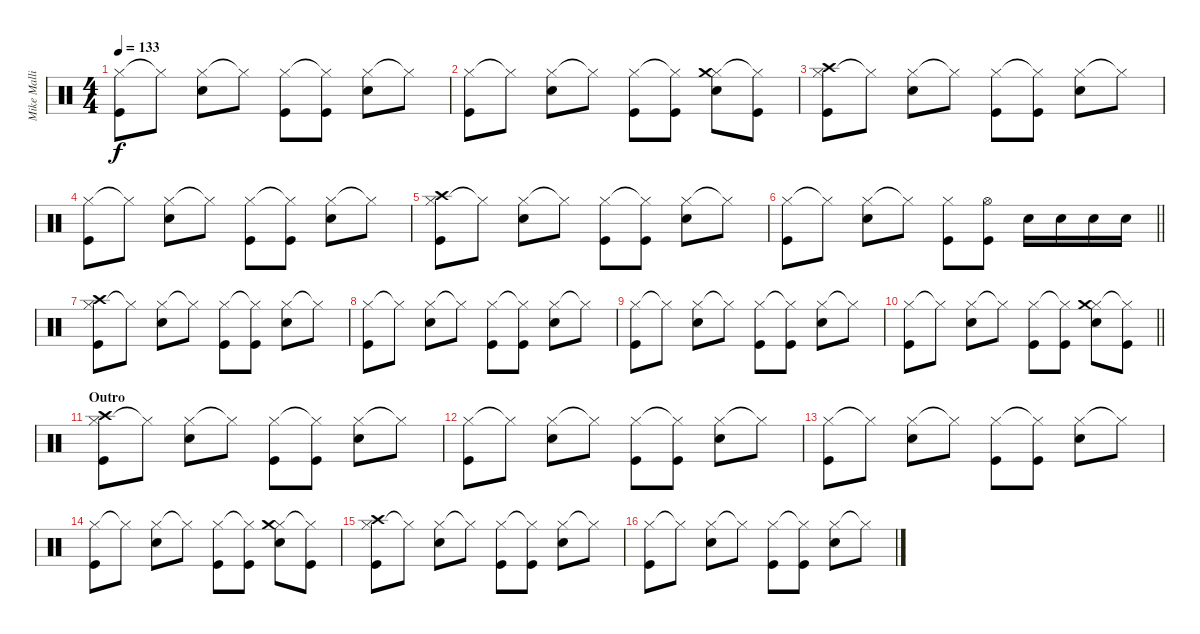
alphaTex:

\track ("Mike Mallinin" "Mike Malli") {instrument percussion}
\staff {score}
\articulation defaults
\ts (4 4)
\tempo 133
\clef neutral
\ks c
("Hi-Hat (closed)" "Kick (hit)").8{dy f} "Hi-Hat (closed)"{t}.8 ("Hi-Hat (closed)" "Snare (hit) 2").8 "Hi-Hat (closed)"{t}.8 ("Hi-Hat (closed)" "Kick (hit)").8 ("Hi-Hat (closed)"{t} "Kick (hit)").8 ("Hi-Hat (closed)" "Snare (hit) 2").8 "Hi-Hat (closed)"{t}.8 |
("Hi-Hat (closed)" "Kick (hit)").8 "Hi-Hat (closed)"{t}.8 ("Hi-Hat (closed)" "Snare (hit) 2").8 "Hi-Hat (closed)"{t}.8 ("Hi-Hat (closed)" "Kick (hit)").8 ("Hi-Hat (closed)"{t} "Kick (hit)").8 ("Hi-Hat (closed)" "Crash medium (hit)" "Snare (hit) 2").8 ("Hi-Hat (closed)"{t} "Kick (hit)").8 |
("Hi-Hat (closed)" "Crash high (hit)" "Kick (hit)").8 "Hi-Hat (closed)"{t}.8 ("Hi-Hat (closed)" "Snare (hit) 2").8 "Hi-Hat (closed)"{t}.8 ("Hi-Hat (closed)" "Kick (hit)").8 ("Hi-Hat (closed)"{t} "Kick (hit)").8 ("Hi-Hat (closed)" "Snare (hit) 2").8 "Hi-Hat (closed)"{t}.8 |
("Hi-Hat (closed)" "Kick (hit)").8 "Hi-Hat (closed)"{t}.8 ("Hi-Hat (closed)" "Snare (hit) 2").8 "Hi-Hat (closed)"{t}.8 ("Hi-Hat (closed)" "Kick (hit)").8 ("Hi-Hat (closed)"{t} "Kick (hit)").8 ("Hi-Hat (closed)" "Snare (hit) 2").8 "Hi-Hat (closed)"{t}.8 |
("Hi-Hat (closed)" "Crash high (hit)" "Kick (hit)").8 "Hi-Hat (closed)"{t}.8 ("Hi-Hat (closed)" "Snare (hit) 2").8 "Hi-Hat (closed)"{t}.8 ("Hi-Hat (closed)" "Kick (hit)").8 ("Hi-Hat (closed)"{t} "Kick (hit)").8 ("Hi-Hat (closed)" "Snare (hit) 2").8 "Hi-Hat (closed)"{t}.8 |
\barLineRight lightlight
("Hi-Hat (closed)" "Kick (hit)").8 "Hi-Hat (closed)"{t}.8 ("Hi-Hat (closed)" "Snare (hit) 2").8 "Hi-Hat (closed)"{t}.8 ("Hi-Hat (closed)" "Kick (hit)").8 ("Hi-Hat (open)" "Kick (hit)").8 "Snare (hit) 2".16 "Snare (hit) 2".16 "Snare (hit) 2".16 "Snare (hit) 2".16 |
("Hi-Hat (closed)" "Crash high (hit)" "Kick (hit)").8 "Hi-Hat (closed)"{t}.8 ("Hi-Hat (closed)" "Snare (hit) 2").8 "Hi-Hat (closed)"{t}.8 ("Hi-Hat (closed)" "Kick (hit)").8 ("Hi-Hat (closed)"{t} "Kick (hit)").8 ("Hi-Hat (closed)" "Snare (hit) 2").8 "Hi-Hat (closed)"{t}.8 |
("Hi-Hat (closed)" "Kick (hit)").8 "Hi-Hat (closed)"{t}.8 ("Hi-Hat (closed)" "Snare (hit) 2").8 "Hi-Hat (closed)"{t}.8 ("Hi-Hat (closed)" "Kick (hit)").8 ("Hi-Hat (closed)"{t} "Kick (hit)").8 ("Hi-Hat (closed)" "Snare (hit) 2").8 "Hi-Hat (closed)"{t}.8 |
("Hi-Hat (closed)" "Kick (hit)").8 "Hi-Hat (closed)"{t}.8 ("Hi-Hat (closed)" "Snare (hit) 2").8 "Hi-Hat (closed)"{t}.8 ("Hi-Hat (closed)" "Kick (hit)").8 ("Hi-Hat (closed)"{t} "Kick (hit)").8 ("Hi-Hat (closed)" "Snare (hit) 2").8 "Hi-Hat (closed)"{t}.8 |
\barLineRight lightlight
("Hi-Hat (closed)" "Kick (hit)").8 "Hi-Hat (closed)"{t}.8 ("Hi-Hat (closed)" "Snare (hit) 2").8 "Hi-Hat (closed)"{t}.8 ("Hi-Hat (closed)" "Kick (hit)").8 ("Hi-Hat (closed)"{t} "Kick (hit)").8 ("Hi-Hat (closed)" "Crash medium (hit)" "Snare (hit) 2").8 ("Hi-Hat (closed)"{t} "Kick (hit)").8 |
\section ("" "Outro")
("Hi-Hat (closed)" "Crash high (hit)" "Kick (hit)").8 "Hi-Hat (closed)"{t}.8 ("Hi-Hat (closed)" "Snare (hit) 2").8 "Hi-Hat (closed)"{t}.8 ("Hi-Hat (closed)" "Kick (hit)").8 ("Hi-Hat (closed)"{t} "Kick (hit)").8 ("Hi-Hat (closed)" "Snare (hit) 2").8 "Hi-Hat (closed)"{t}.8 |
("Hi-Hat (closed)" "Kick (hit)").8 "Hi-Hat (closed)"{t}.8 ("Hi-Hat (closed)" "Snare (hit) 2").8 "Hi-Hat (closed)"{t}.8 ("Hi-Hat (closed)" "Kick (hit)").8 ("Hi-Hat (closed)"{t} "Kick (hit)").8 ("Hi-Hat (closed)" "Snare (hit) 2").8 "Hi-Hat (closed)"{t}.8 |
("Hi-Hat (closed)" "Kick (hit)").8 "Hi-Hat (closed)"{t}.8 ("Hi-Hat (closed)" "Snare (hit) 2").8 "Hi-Hat (closed)"{t}.8 ("Hi-Hat (closed)" "Kick (hit)").8 ("Hi-Hat (closed)"{t} "Kick (hit)").8 ("Hi-Hat (closed)" "Snare (hit) 2").8 "Hi-Hat (closed)"{t}.8 |
("Hi-Hat (closed)" "Kick (hit)").8 "Hi-Hat (closed)"{t}.8 ("Hi-Hat (closed)" "Snare (hit) 2").8 "Hi-Hat (closed)"{t}.8 ("Hi-Hat (closed)" "Kick (hit)").8 ("Hi-Hat (closed)"{t} "Kick (hit)").8 ("Hi-Hat (closed)" "Crash medium (hit)" "Snare (hit) 2").8 ("Hi-Hat (closed)"{t} "Kick (hit)").8 |
("Hi-Hat (closed)" "Crash high (hit)" "Kick (hit)").8 "Hi-Hat (closed)"{t}.8 ("Hi-Hat (closed)" "Snare (hit) 2").8 "Hi-Hat (closed)"{t}.8 ("Hi-Hat (closed)" "Kick (hit)").8 ("Hi-Hat (closed)"{t} "Kick (hit)").8 ("Hi-Hat (closed)" "Snare (hit) 2").8 "Hi-Hat (closed)"{t}.8 |
("Hi-Hat (closed)" "Kick (hit)").8 "Hi-Hat (closed)"{t}.8 ("Hi-Hat (closed)" "Snare (hit) 2").8 "Hi-Hat (closed)"{t}.8 ("Hi-Hat (closed)" "Kick (hit)").8 ("Hi-Hat (closed)"{t} "Kick (hit)").8 ("Hi-Hat (closed)" "Snare (hit) 2").8 "Hi-Hat (closed)"{t}.8
